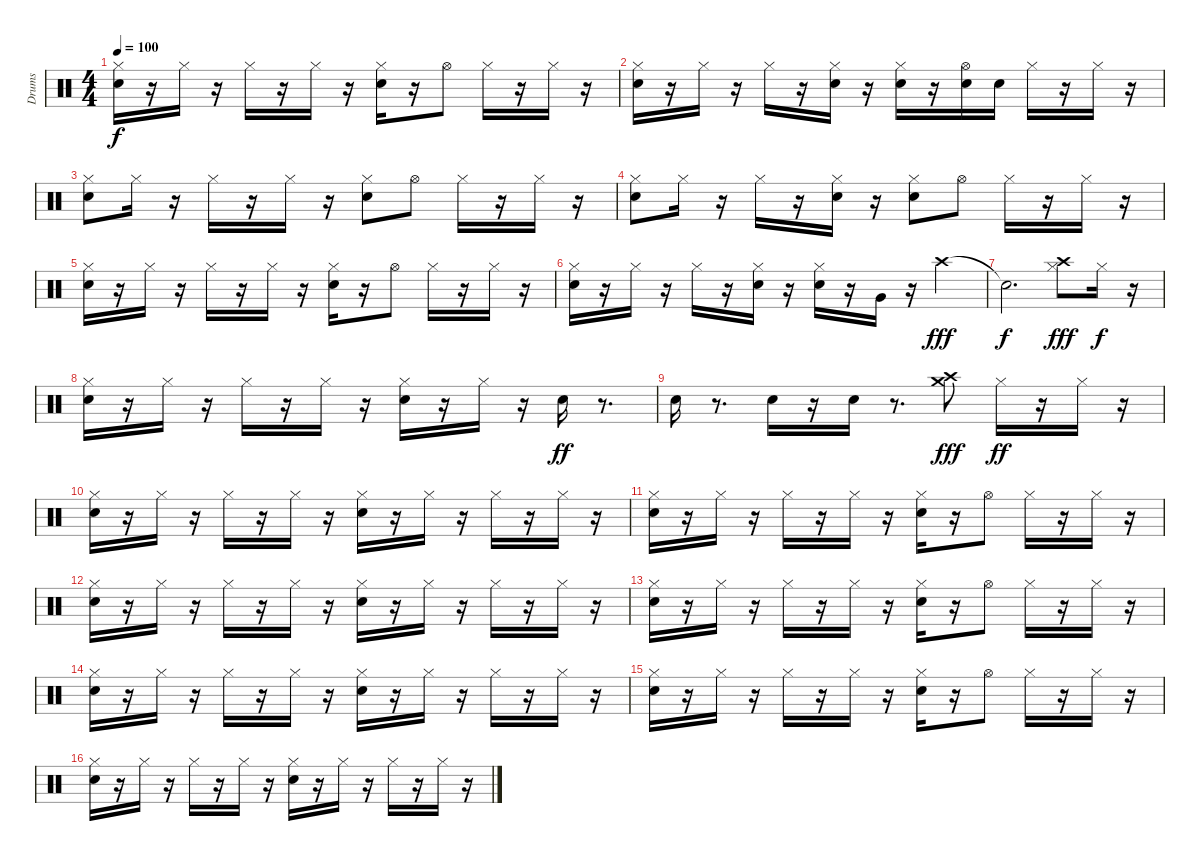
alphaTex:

\track ("Drums" "Drums") {instrument percussion}
\staff {score}
\articulation defaults
\ts (4 4)
\tempo 100
\clef neutral
\ks c
("Hi-Hat (closed)" "Snare (hit) 2").16{dy f} r.16 "Hi-Hat (closed)".16 r.16 "Hi-Hat (closed)".16 r.16 "Hi-Hat (closed)".16 r.16 ("Hi-Hat (closed)" "Snare (hit) 2").16 r.16 "Hi-Hat (open)".8 "Hi-Hat (closed)".16 r.16 "Hi-Hat (closed)".16 r.16 |
("Hi-Hat (closed)" "Snare (hit) 2").16 r.16 "Hi-Hat (closed)".16 r.16 "Hi-Hat (closed)".16 r.16 ("Hi-Hat (closed)" "Snare (hit) 2").16 r.16 ("Hi-Hat (closed)" "Snare (hit) 2").16 r.16 ("Hi-Hat (open)" "Snare (hit) 2").16 "Snare (hit) 2".16 "Hi-Hat (closed)".16 r.16 "Hi-Hat (closed)".16 r.16 |
("Hi-Hat (closed)" "Snare (hit) 2").8 "Hi-Hat (closed)".16 r.16 "Hi-Hat (closed)".16 r.16 "Hi-Hat (closed)".16 r.16 ("Snare (hit) 2" "Hi-Hat (closed)").8 "Hi-Hat (open)".8 "Hi-Hat (closed)".16 r.16 "Hi-Hat (closed)".16 r.16 |
("Hi-Hat (closed)" "Snare (hit) 2").8 "Hi-Hat (closed)".16 r.16 "Hi-Hat (closed)".16 r.16 ("Hi-Hat (closed)" "Snare (hit) 2").16 r.16 ("Hi-Hat (closed)" "Snare (hit) 2").8 "Hi-Hat (open)".8 "Hi-Hat (closed)".16 r.16 "Hi-Hat (closed)".16 r.16 |
("Hi-Hat (closed)" "Snare (hit) 2").16 r.16 "Hi-Hat (closed)".16 r.16 "Hi-Hat (closed)".16 r.16 "Hi-Hat (closed)".16 r.16 ("Snare (hit) 2" "Hi-Hat (closed)").16 r.16 "Hi-Hat (open)".8 "Hi-Hat (closed)".16 r.16 "Hi-Hat (closed)".16 r.16 |
("Snare (hit) 2" "Hi-Hat (closed)").16 r.16 "Hi-Hat (closed)".16 r.16 "Hi-Hat (closed)".16 r.16 ("Hi-Hat (closed)" "Snare (hit) 2").16 r.16 ("Hi-Hat (closed)" "Snare (hit) 2").16 r.16 "Very Low Tom (hit)".16 r.16 "Crash high (hit)".4{dy fff} |
"Snare (hit)"{t}.2{d dy f} ("Crash high (hit)" "Hi-Hat (closed)").8{dy fff} "Hi-Hat (closed)".16{dy f} r.16 |
("Snare (hit) 2" "Hi-Hat (closed)").16 r.16 "Hi-Hat (closed)".16 r.16 "Hi-Hat (closed)".16 r.16 "Hi-Hat (closed)".16 r.16 ("Snare (hit) 2" "Hi-Hat (closed)").16 r.16 "Hi-Hat (closed)".16 r.16 "Snare (hit) 2".16{dy ff} r.8{d} |
"Snare (hit) 2".16 r.8{d} "Snare (hit) 2".16 r.16 "Snare (hit) 2".16 r.8{d} ("Crash high (hit)" "Crash medium (hit)").8{dy fff} "Hi-Hat (closed)".16{dy ff} r.16 "Hi-Hat (closed)".16 r.16 |
("Hi-Hat (closed)" "Snare (hit) 2").16 r.16 "Hi-Hat (closed)".16 r.16 "Hi-Hat (closed)".16 r.16 "Hi-Hat (closed)".16 r.16 ("Hi-Hat (closed)" "Snare (hit) 2").16 r.16 "Hi-Hat (closed)".16 r.16 "Hi-Hat (closed)".16 r.16 "Hi-Hat (closed)".16 r.16 |
("Snare (hit) 2" "Hi-Hat (closed)").16 r.16 "Hi-Hat (closed)".16 r.16 "Hi-Hat (closed)".16 r.16 "Hi-Hat (closed)".16 r.16 ("Hi-Hat (closed)" "Snare (hit) 2").16 r.16 "Hi-Hat (open)".8 "Hi-Hat (closed)".16 r.16 "Hi-Hat (closed)".16 r.16 |
("Hi-Hat (closed)" "Snare (hit) 2").16 r.16 "Hi-Hat (closed)".16 r.16 "Hi-Hat (closed)".16 r.16 "Hi-Hat (closed)".16 r.16 ("Hi-Hat (closed)" "Snare (hit) 2").16 r.16 "Hi-Hat (closed)".16 r.16 "Hi-Hat (closed)".16 r.16 "Hi-Hat (closed)".16 r.16 |
("Snare (hit) 2" "Hi-Hat (closed)").16 r.16 "Hi-Hat (closed)".16 r.16 "Hi-Hat (closed)".16 r.16 "Hi-Hat (closed)".16 r.16 ("Hi-Hat (closed)" "Snare (hit) 2").16 r.16 "Hi-Hat (open)".8 "Hi-Hat (closed)".16 r.16 "Hi-Hat (closed)".16 r.16 |
("Hi-Hat (closed)" "Snare (hit) 2").16 r.16 "Hi-Hat (closed)".16 r.16 "Hi-Hat (closed)".16 r.16 "Hi-Hat (closed)".16 r.16 ("Hi-Hat (closed)" "Snare (hit) 2").16 r.16 "Hi-Hat (closed)".16 r.16 "Hi-Hat (closed)".16 r.16 "Hi-Hat (closed)".16 r.16 |
("Snare (hit) 2" "Hi-Hat (closed)").16 r.16 "Hi-Hat (closed)".16 r.16 "Hi-Hat (closed)".16 r.16 "Hi-Hat (closed)".16 r.16 ("Hi-Hat (closed)" "Snare (hit) 2").16 r.16 "Hi-Hat (open)".8 "Hi-Hat (closed)".16 r.16 "Hi-Hat (closed)".16 r.16 |
("Hi-Hat (closed)" "Snare (hit) 2").16 r.16 "Hi-Hat (closed)".16 r.16 "Hi-Hat (closed)".16 r.16 "Hi-Hat (closed)".16 r.16 ("Hi-Hat (closed)" "Snare (hit) 2").16 r.16 "Hi-Hat (closed)".16 r.16 "Hi-Hat (closed)".16 r.16 "Hi-Hat (closed)".16 r.16
